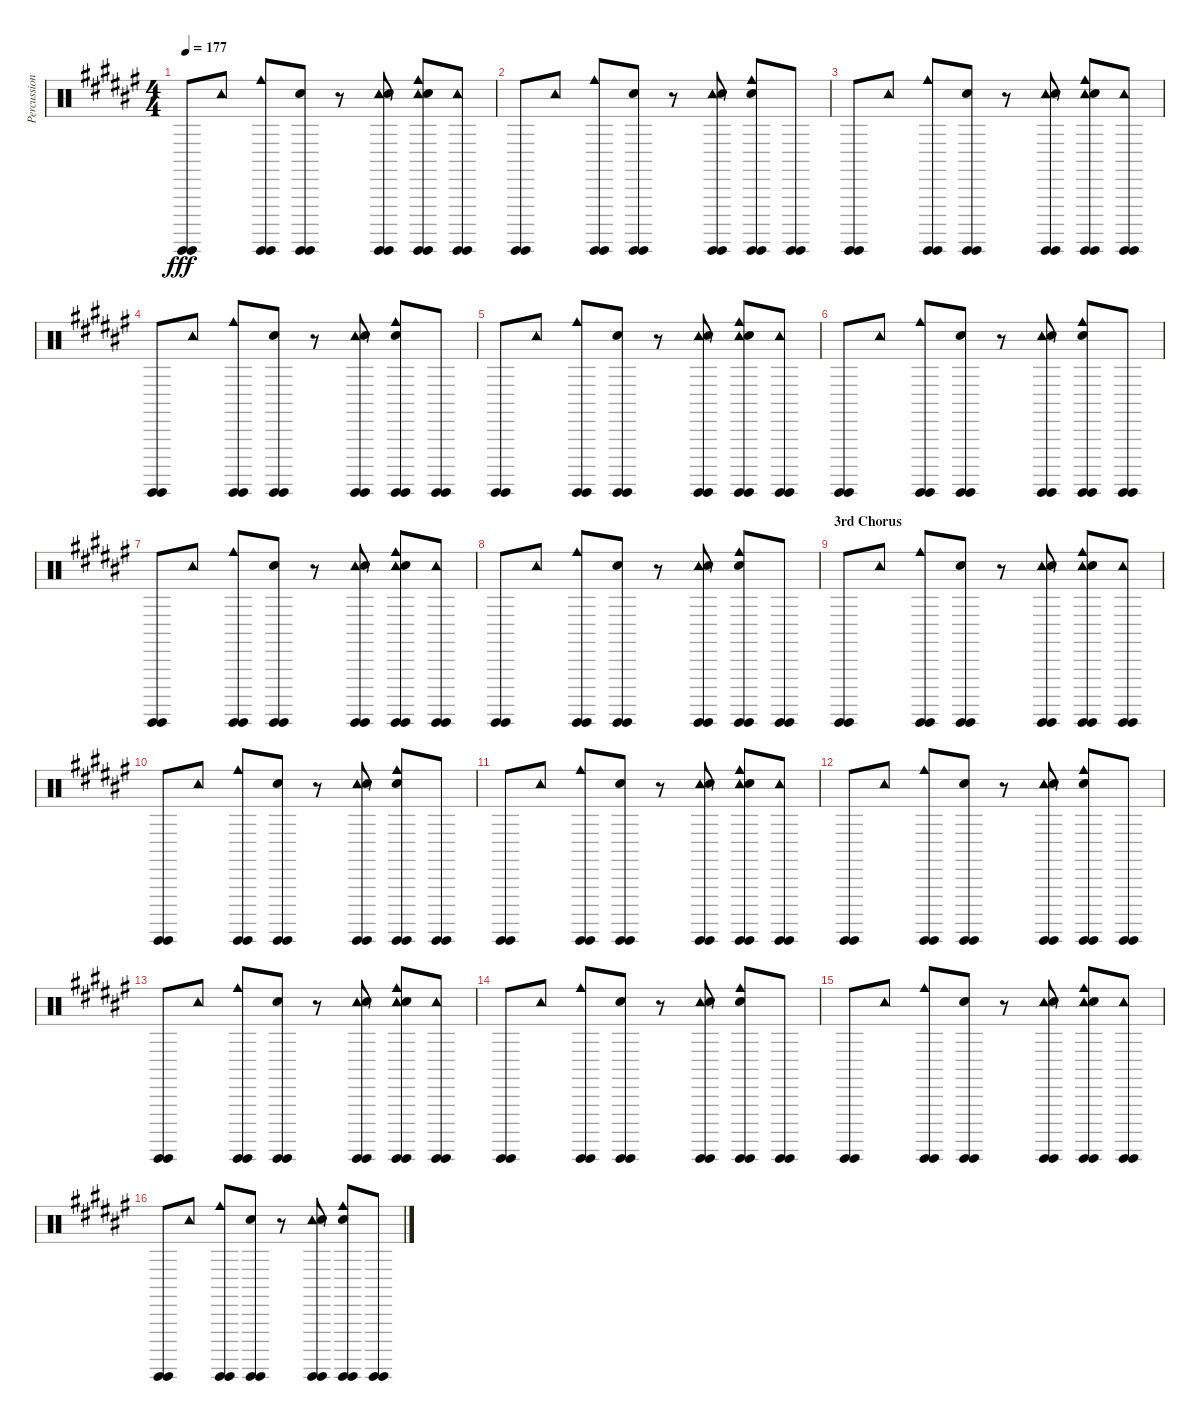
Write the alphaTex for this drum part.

\track ("Percussion" "Percussion") {instrument percussion}
\staff {score}
\articulation defaults
\ts (4 4)
\tempo 177
\clef neutral
\ks d#minor
("Guiro (hit)" "Guiro (hit)").8{dy fff} "Tambourine (hit)".8 ("Cowbell medium (hit)" "Guiro (hit)" "Guiro (hit)").8 ("Guiro (hit)" "Guiro (hit)" "Hand Clap (hit)").8 r.8 ("Tambourine (hit)" "Guiro (hit)" "Guiro (hit)" "Hand Clap (hit)").8 ("Cowbell medium (hit)" "Tambourine (hit)" "Guiro (hit)" "Guiro (hit)" "Hand Clap (hit)").8 ("Tambourine (hit)" "Guiro (hit)" "Guiro (hit)").8 |
("Guiro (hit)" "Guiro (hit)").8 "Tambourine (hit)".8 ("Cowbell medium (hit)" "Guiro (hit)" "Guiro (hit)").8 ("Guiro (hit)" "Guiro (hit)" "Hand Clap (hit)").8 r.8 ("Tambourine (hit)" "Guiro (hit)" "Guiro (hit)" "Hand Clap (hit)").8 ("Cowbell medium (hit)" "Guiro (hit)" "Guiro (hit)" "Hand Clap (hit)").8 ("Guiro (hit)" "Guiro (hit)").8 |
("Guiro (hit)" "Guiro (hit)").8 "Tambourine (hit)".8 ("Cowbell medium (hit)" "Guiro (hit)" "Guiro (hit)").8 ("Guiro (hit)" "Guiro (hit)" "Hand Clap (hit)").8 r.8 ("Tambourine (hit)" "Guiro (hit)" "Guiro (hit)" "Hand Clap (hit)").8 ("Cowbell medium (hit)" "Tambourine (hit)" "Guiro (hit)" "Guiro (hit)" "Hand Clap (hit)").8 ("Tambourine (hit)" "Guiro (hit)" "Guiro (hit)").8 |
("Guiro (hit)" "Guiro (hit)").8 "Tambourine (hit)".8 ("Cowbell medium (hit)" "Guiro (hit)" "Guiro (hit)").8 ("Guiro (hit)" "Guiro (hit)" "Hand Clap (hit)").8 r.8 ("Tambourine (hit)" "Guiro (hit)" "Guiro (hit)" "Hand Clap (hit)").8 ("Cowbell medium (hit)" "Guiro (hit)" "Guiro (hit)" "Hand Clap (hit)").8 ("Guiro (hit)" "Guiro (hit)").8 |
("Guiro (hit)" "Guiro (hit)").8 "Tambourine (hit)".8 ("Cowbell medium (hit)" "Guiro (hit)" "Guiro (hit)").8 ("Guiro (hit)" "Guiro (hit)" "Hand Clap (hit)").8 r.8 ("Tambourine (hit)" "Guiro (hit)" "Guiro (hit)" "Hand Clap (hit)").8 ("Cowbell medium (hit)" "Tambourine (hit)" "Guiro (hit)" "Guiro (hit)" "Hand Clap (hit)").8 ("Tambourine (hit)" "Guiro (hit)" "Guiro (hit)").8 |
("Guiro (hit)" "Guiro (hit)").8 "Tambourine (hit)".8 ("Cowbell medium (hit)" "Guiro (hit)" "Guiro (hit)").8 ("Guiro (hit)" "Guiro (hit)" "Hand Clap (hit)").8 r.8 ("Tambourine (hit)" "Guiro (hit)" "Guiro (hit)" "Hand Clap (hit)").8 ("Cowbell medium (hit)" "Guiro (hit)" "Guiro (hit)" "Hand Clap (hit)").8 ("Guiro (hit)" "Guiro (hit)").8 |
("Guiro (hit)" "Guiro (hit)").8 "Tambourine (hit)".8 ("Cowbell medium (hit)" "Guiro (hit)" "Guiro (hit)").8 ("Guiro (hit)" "Guiro (hit)" "Hand Clap (hit)").8 r.8 ("Tambourine (hit)" "Guiro (hit)" "Guiro (hit)" "Hand Clap (hit)").8 ("Cowbell medium (hit)" "Tambourine (hit)" "Guiro (hit)" "Guiro (hit)" "Hand Clap (hit)").8 ("Tambourine (hit)" "Guiro (hit)" "Guiro (hit)").8 |
("Guiro (hit)" "Guiro (hit)").8 "Tambourine (hit)".8 ("Cowbell medium (hit)" "Guiro (hit)" "Guiro (hit)").8 ("Guiro (hit)" "Guiro (hit)" "Hand Clap (hit)").8 r.8 ("Tambourine (hit)" "Guiro (hit)" "Guiro (hit)" "Hand Clap (hit)").8 ("Cowbell medium (hit)" "Guiro (hit)" "Guiro (hit)" "Hand Clap (hit)").8 ("Guiro (hit)" "Guiro (hit)").8 |
\section ("" "3rd Chorus")
("Guiro (hit)" "Guiro (hit)").8 "Tambourine (hit)".8 ("Cowbell medium (hit)" "Guiro (hit)" "Guiro (hit)").8 ("Guiro (hit)" "Guiro (hit)" "Hand Clap (hit)").8 r.8 ("Tambourine (hit)" "Guiro (hit)" "Guiro (hit)" "Hand Clap (hit)").8 ("Cowbell medium (hit)" "Tambourine (hit)" "Guiro (hit)" "Guiro (hit)" "Hand Clap (hit)").8 ("Tambourine (hit)" "Guiro (hit)" "Guiro (hit)").8 |
("Guiro (hit)" "Guiro (hit)").8 "Tambourine (hit)".8 ("Cowbell medium (hit)" "Guiro (hit)" "Guiro (hit)").8 ("Guiro (hit)" "Guiro (hit)" "Hand Clap (hit)").8 r.8 ("Tambourine (hit)" "Guiro (hit)" "Guiro (hit)" "Hand Clap (hit)").8 ("Cowbell medium (hit)" "Guiro (hit)" "Guiro (hit)" "Hand Clap (hit)").8 ("Guiro (hit)" "Guiro (hit)").8 |
("Guiro (hit)" "Guiro (hit)").8 "Tambourine (hit)".8 ("Cowbell medium (hit)" "Guiro (hit)" "Guiro (hit)").8 ("Guiro (hit)" "Guiro (hit)" "Hand Clap (hit)").8 r.8 ("Tambourine (hit)" "Guiro (hit)" "Guiro (hit)" "Hand Clap (hit)").8 ("Cowbell medium (hit)" "Tambourine (hit)" "Guiro (hit)" "Guiro (hit)" "Hand Clap (hit)").8 ("Tambourine (hit)" "Guiro (hit)" "Guiro (hit)").8 |
("Guiro (hit)" "Guiro (hit)").8 "Tambourine (hit)".8 ("Cowbell medium (hit)" "Guiro (hit)" "Guiro (hit)").8 ("Guiro (hit)" "Guiro (hit)" "Hand Clap (hit)").8 r.8 ("Tambourine (hit)" "Guiro (hit)" "Guiro (hit)" "Hand Clap (hit)").8 ("Cowbell medium (hit)" "Guiro (hit)" "Guiro (hit)" "Hand Clap (hit)").8 ("Guiro (hit)" "Guiro (hit)").8 |
("Guiro (hit)" "Guiro (hit)").8 "Tambourine (hit)".8 ("Cowbell medium (hit)" "Guiro (hit)" "Guiro (hit)").8 ("Guiro (hit)" "Guiro (hit)" "Hand Clap (hit)").8 r.8 ("Tambourine (hit)" "Guiro (hit)" "Guiro (hit)" "Hand Clap (hit)").8 ("Cowbell medium (hit)" "Tambourine (hit)" "Guiro (hit)" "Guiro (hit)" "Hand Clap (hit)").8 ("Tambourine (hit)" "Guiro (hit)" "Guiro (hit)").8 |
("Guiro (hit)" "Guiro (hit)").8 "Tambourine (hit)".8 ("Cowbell medium (hit)" "Guiro (hit)" "Guiro (hit)").8 ("Guiro (hit)" "Guiro (hit)" "Hand Clap (hit)").8 r.8 ("Tambourine (hit)" "Guiro (hit)" "Guiro (hit)" "Hand Clap (hit)").8 ("Cowbell medium (hit)" "Guiro (hit)" "Guiro (hit)" "Hand Clap (hit)").8 ("Guiro (hit)" "Guiro (hit)").8 |
("Guiro (hit)" "Guiro (hit)").8 "Tambourine (hit)".8 ("Cowbell medium (hit)" "Guiro (hit)" "Guiro (hit)").8 ("Guiro (hit)" "Guiro (hit)" "Hand Clap (hit)").8 r.8 ("Tambourine (hit)" "Guiro (hit)" "Guiro (hit)" "Hand Clap (hit)").8 ("Cowbell medium (hit)" "Tambourine (hit)" "Guiro (hit)" "Guiro (hit)" "Hand Clap (hit)").8 ("Tambourine (hit)" "Guiro (hit)" "Guiro (hit)").8 |
("Guiro (hit)" "Guiro (hit)").8 "Tambourine (hit)".8 ("Cowbell medium (hit)" "Guiro (hit)" "Guiro (hit)").8 ("Guiro (hit)" "Guiro (hit)" "Hand Clap (hit)").8 r.8 ("Tambourine (hit)" "Guiro (hit)" "Guiro (hit)" "Hand Clap (hit)").8 ("Cowbell medium (hit)" "Guiro (hit)" "Guiro (hit)" "Hand Clap (hit)").8 ("Guiro (hit)" "Guiro (hit)").8
